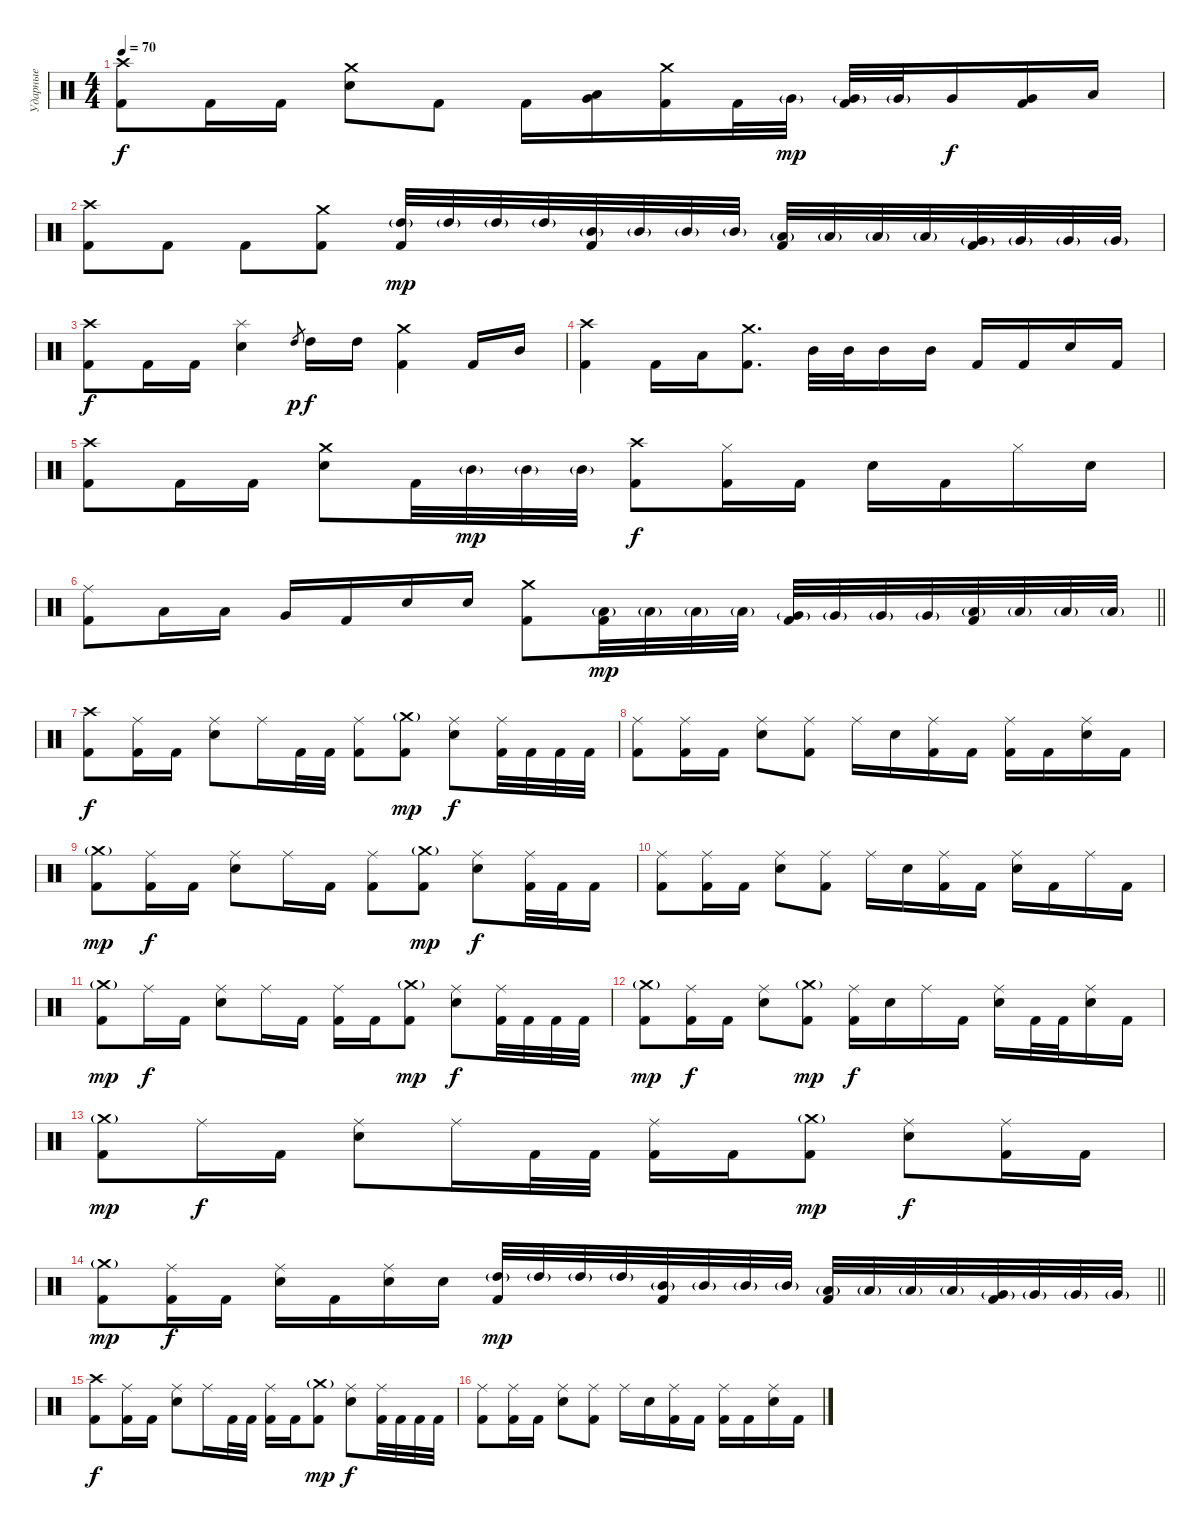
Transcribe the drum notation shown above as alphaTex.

\track ("Ударные" "Ударные") {instrument percussion}
\staff {score}
\articulation defaults
\ts (4 4)
\tempo 70
\clef neutral
\ks c
("Kick (hit) 2" "Crash high (hit)").8{dy f} "Kick (hit) 2".16 "Kick (hit) 2".16 ("Electric Snare (hit)" "Crash medium (hit)").8 "Kick (hit) 2".8 "Kick (hit) 2".16 ("Very Low Tom (hit)" "Low Tom (hit)").16 ("Kick (hit) 2" "Crash medium (hit)").16 "Kick (hit) 2".32 "Very Low Tom (hit)"{g}.32{dy mp} ("Very Low Tom (hit)"{g} "Kick (hit) 2").32 "Very Low Tom (hit)"{g}.32 "Very Low Tom (hit)".16{dy f} ("Very Low Tom (hit)" "Kick (hit) 2").16 "Low Floor Tom (hit)".16 |
("Kick (hit) 2" "Crash high (hit)").8 "Kick (hit) 2".8 "Kick (hit) 2".8 ("Kick (hit) 2" "Crash medium (hit)").8 ("High Tom (hit)"{g} "Kick (hit) 2").32{dy mp} "High Tom (hit)"{g}.32 "High Tom (hit)"{g}.32 "High Tom (hit)"{g}.32 ("Mid Tom (hit)"{g} "Kick (hit) 2").32 "Mid Tom (hit)"{g}.32 "Mid Tom (hit)"{g}.32 "Mid Tom (hit)"{g}.32 ("Low Tom (hit)"{g} "Kick (hit) 2").32 "Low Tom (hit)"{g}.32 "Low Tom (hit)"{g}.32 "Low Tom (hit)"{g}.32 ("Very Low Tom (hit)"{g} "Kick (hit) 2").32 "Very Low Tom (hit)"{g}.32 "Very Low Tom (hit)"{g}.32 "Very Low Tom (hit)"{g}.32 |
("Kick (hit) 2" "Crash high (hit)").8{dy f} "Kick (hit) 2".16 "Kick (hit) 2".16 ("Electric Snare (hit)" "Splash (hit)").4 "High Tom (hit)".8{gr dy p} "High Tom (hit)".16{dy f} "High Tom (hit)".16 ("Kick (hit) 2" "Crash medium (hit)").4 "Kick (hit) 2".16 "Mid Tom (hit)".16 |
("Kick (hit) 2" "Crash high (hit)").4 "Kick (hit) 2".16 "Low Tom (hit)".16 ("Kick (hit) 2" "Crash medium (hit)").8{d} "Mid Tom (hit)".32 "Mid Tom (hit)".32 "Mid Tom (hit)".16 "Mid Tom (hit)".16 "Kick (hit) 2".16 "Kick (hit) 2".16 "Electric Snare (hit)".16 "Kick (hit) 2".16 |
("Kick (hit) 2" "Crash high (hit)").8 "Kick (hit) 2".16 "Kick (hit) 2".16 ("Electric Snare (hit)" "Crash medium (hit)").8 "Kick (hit) 2".32 "Mid Tom (hit)"{g}.32{dy mp} "Mid Tom (hit)"{g}.32 "Mid Tom (hit)"{g}.32 ("Crash high (hit)" "Kick (hit) 2").8{dy f} ("Kick (hit) 2" "Hi-Hat (closed)").16 "Kick (hit) 2".16 "Electric Snare (hit)".16 "Kick (hit) 2".16 "Hi-Hat (closed)".16 "Electric Snare (hit)".16 |
\barLineRight lightlight
("Kick (hit) 2" "Ride (middle)").8 "Low Tom (hit)".16 "Low Tom (hit)".16 "Very Low Tom (hit)".16 "Kick (hit) 2".16 "Electric Snare (hit)".16 "Electric Snare (hit)".16 ("Kick (hit) 2" "Crash medium (hit)").8 ("Low Tom (hit)"{g} "Kick (hit) 2").32{dy mp} "Low Tom (hit)"{g}.32 "Low Tom (hit)"{g}.32 "Low Tom (hit)"{g}.32 ("Very Low Tom (hit)"{g} "Kick (hit) 2").32 "Very Low Tom (hit)"{g}.32 "Very Low Tom (hit)"{g}.32 "Very Low Tom (hit)"{g}.32 ("Low Floor Tom (hit)"{g} "Kick (hit) 2").32 "Low Floor Tom (hit)"{g}.32 "Low Floor Tom (hit)"{g}.32 "Low Floor Tom (hit)"{g}.32 |
\section ("" "")
("Kick (hit) 2" "Crash high (hit)").8{dy f} ("Kick (hit) 2" "Ride (middle)").16 "Kick (hit) 2".16 ("Electric Snare (hit)" "Ride (middle)").8 "Ride (middle)".16 "Kick (hit) 2".32 "Kick (hit) 2".32 ("Kick (hit) 2" "Ride (middle)").8 ("Kick (hit) 2" "Crash medium (hit)"{g}).8{dy mp} ("Electric Snare (hit)" "Ride (middle)").8{dy f} ("Kick (hit) 2" "Ride (middle)").32 "Kick (hit) 2".32 "Kick (hit) 2".32 "Kick (hit) 2".32 |
("Kick (hit) 2" "Ride (middle)").8 ("Kick (hit) 2" "Ride (middle)").16 "Kick (hit) 2".16 ("Electric Snare (hit)" "Ride (middle)").8 ("Kick (hit) 2" "Ride (middle)").8 "Ride (middle)".16 "Electric Snare (hit)".16 ("Kick (hit) 2" "Ride (middle)").16 "Kick (hit) 2".16 ("Kick (hit) 2" "Ride (middle)").16 "Kick (hit) 2".16 ("Electric Snare (hit)" "Ride (middle)").16 "Kick (hit) 2".16 |
("Kick (hit) 2" "Crash medium (hit)"{g}).8{dy mp} ("Kick (hit) 2" "Ride (middle)").16{dy f} "Kick (hit) 2".16 ("Electric Snare (hit)" "Ride (middle)").8 "Ride (middle)".16 "Kick (hit) 2".16 ("Kick (hit) 2" "Ride (middle)").8 ("Kick (hit) 2" "Crash medium (hit)"{g}).8{dy mp} ("Electric Snare (hit)" "Ride (middle)").8{dy f} ("Kick (hit) 2" "Ride (middle)").32 "Kick (hit) 2".32 "Kick (hit) 2".16 |
("Kick (hit) 2" "Ride (middle)").8 ("Kick (hit) 2" "Ride (middle)").16 "Kick (hit) 2".16 ("Electric Snare (hit)" "Ride (middle)").8 ("Kick (hit) 2" "Ride (middle)").8 "Ride (middle)".16 "Electric Snare (hit)".16 ("Kick (hit) 2" "Ride (middle)").16 "Kick (hit) 2".16 ("Electric Snare (hit)" "Ride (middle)").16 "Kick (hit) 2".16 "Ride (middle)".16 "Kick (hit) 2".16 |
("Kick (hit) 2" "Crash medium (hit)"{g}).8{dy mp} "Ride (middle)".16{dy f} "Kick (hit) 2".16 ("Electric Snare (hit)" "Ride (middle)").8 "Ride (middle)".16 "Kick (hit) 2".16 ("Kick (hit) 2" "Ride (middle)").16 "Kick (hit) 2".16 ("Kick (hit) 2" "Crash medium (hit)"{g}).8{dy mp} ("Electric Snare (hit)" "Ride (middle)").8{dy f} ("Kick (hit) 2" "Ride (middle)").32 "Kick (hit) 2".32 "Kick (hit) 2".32 "Kick (hit) 2".32 |
("Kick (hit) 2" "Crash medium (hit)"{g}).8{dy mp} ("Kick (hit) 2" "Ride (middle)").16{dy f} "Kick (hit) 2".16 ("Electric Snare (hit)" "Ride (middle)").8 ("Kick (hit) 2" "Crash medium (hit)"{g}).8{dy mp} ("Kick (hit) 2" "Ride (middle)").16{dy f} "Electric Snare (hit)".16 "Ride (middle)".16 "Kick (hit) 2".16 ("Electric Snare (hit)" "Ride (middle)").16 "Kick (hit) 2".32 "Kick (hit) 2".32 ("Electric Snare (hit)" "Ride (middle)").16 "Kick (hit) 2".16 |
("Kick (hit) 2" "Crash medium (hit)"{g}).8{dy mp} "Ride (middle)".16{dy f} "Kick (hit) 2".16 ("Electric Snare (hit)" "Ride (middle)").8 "Ride (middle)".16 "Kick (hit) 2".32 "Kick (hit) 2".32 ("Kick (hit) 2" "Ride (middle)").16 "Kick (hit) 2".16 ("Kick (hit) 2" "Crash medium (hit)"{g}).8{dy mp} ("Electric Snare (hit)" "Ride (middle)").8{dy f} ("Kick (hit) 2" "Ride (middle)").16 "Kick (hit) 2".16 |
\barLineRight lightlight
("Kick (hit) 2" "Crash medium (hit)"{g}).8{dy mp} ("Kick (hit) 2" "Ride (middle)").16{dy f} "Kick (hit) 2".16 ("Electric Snare (hit)" "Ride (middle)").16 "Kick (hit) 2".16 ("Electric Snare (hit)" "Ride (middle)").16 "Electric Snare (hit)".16 ("High Tom (hit)"{g} "Kick (hit) 2").32{dy mp} "High Tom (hit)"{g}.32 "High Tom (hit)"{g}.32 "High Tom (hit)"{g}.32 ("Mid Tom (hit)"{g} "Kick (hit) 2").32 "Mid Tom (hit)"{g}.32 "Mid Tom (hit)"{g}.32 "Mid Tom (hit)"{g}.32 ("Low Tom (hit)"{g} "Kick (hit) 2").32 "Low Tom (hit)"{g}.32 "Low Tom (hit)"{g}.32 "Low Tom (hit)"{g}.32 ("Very Low Tom (hit)"{g} "Kick (hit) 2").32 "Very Low Tom (hit)"{g}.32 "Very Low Tom (hit)"{g}.32 "Very Low Tom (hit)"{g}.32 |
\section ("" "")
("Kick (hit) 2" "Crash high (hit)").8{dy f} ("Kick (hit) 2" "Ride (middle)").16 "Kick (hit) 2".16 ("Electric Snare (hit)" "Ride (middle)").8 "Ride (middle)".16 "Kick (hit) 2".32 "Kick (hit) 2".32 ("Kick (hit) 2" "Ride (middle)").16 "Kick (hit) 2".16 ("Kick (hit) 2" "Crash medium (hit)"{g}).8{dy mp} ("Electric Snare (hit)" "Ride (middle)").8{dy f} ("Kick (hit) 2" "Ride (middle)").32 "Kick (hit) 2".32 "Kick (hit) 2".32 "Kick (hit) 2".32 |
("Kick (hit) 2" "Ride (middle)").8 ("Kick (hit) 2" "Ride (middle)").16 "Kick (hit) 2".16 ("Electric Snare (hit)" "Ride (middle)").8 ("Kick (hit) 2" "Ride (middle)").8 "Ride (middle)".16 "Electric Snare (hit)".16 ("Kick (hit) 2" "Ride (middle)").16 "Kick (hit) 2".16 ("Kick (hit) 2" "Ride (middle)").16 "Kick (hit) 2".16 ("Electric Snare (hit)" "Ride (middle)").16 "Kick (hit) 2".16
